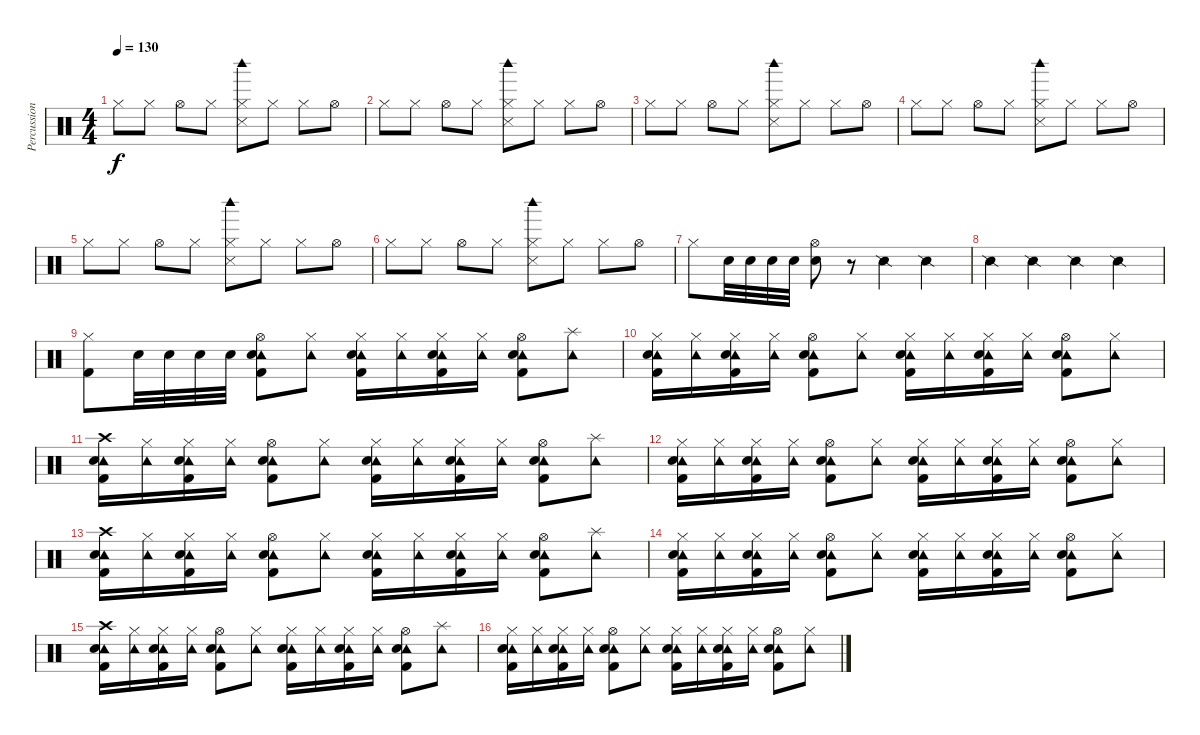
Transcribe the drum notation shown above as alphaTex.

\track ("Percussion" "Percussion") {instrument percussion}
\staff {score}
\articulation defaults
\ts (4 4)
\tempo 130
\clef neutral
\ks c "Hi-Hat (closed)".8{dy f} "Hi-Hat (closed)".8 "Hi-Hat (open)".8 "Hi-Hat (closed)".8
("Hi-Hat (closed)" "Snare (side stick) 3" "Woodblock high (hit)").8 "Hi-Hat (closed)".8 "Hi-Hat (closed)".8 "Hi-Hat (open)".8 |
"Hi-Hat (closed)".8 "Hi-Hat (closed)".8 "Hi-Hat (open)".8 "Hi-Hat (closed)".8 ("Hi-Hat (closed)" "Snare (side stick) 3" "Woodblock high (hit)").8 "Hi-Hat (closed)".8 "Hi-Hat (closed)".8 "Hi-Hat (open)".8 |
"Hi-Hat (closed)".8 "Hi-Hat (closed)".8 "Hi-Hat (open)".8 "Hi-Hat (closed)".8 ("Hi-Hat (closed)" "Snare (side stick) 3" "Woodblock high (hit)").8 "Hi-Hat (closed)".8 "Hi-Hat (closed)".8 "Hi-Hat (open)".8 |
"Hi-Hat (closed)".8 "Hi-Hat (closed)".8 "Hi-Hat (open)".8 "Hi-Hat (closed)".8 ("Hi-Hat (closed)" "Snare (side stick) 3" "Woodblock high (hit)").8 "Hi-Hat (closed)".8 "Hi-Hat (closed)".8 "Hi-Hat (open)".8 |
"Hi-Hat (closed)".8 "Hi-Hat (closed)".8 "Hi-Hat (open)".8 "Hi-Hat (closed)".8 ("Hi-Hat (closed)" "Snare (side stick) 3" "Woodblock high (hit)").8 "Hi-Hat (closed)".8 "Hi-Hat (closed)".8 "Hi-Hat (open)".8 |
"Hi-Hat (closed)".8 "Hi-Hat (closed)".8 "Hi-Hat (open)".8 "Hi-Hat (closed)".8 ("Hi-Hat (closed)" "Snare (side stick) 3" "Woodblock high (hit)").8 "Hi-Hat (closed)".8 "Hi-Hat (closed)".8 "Hi-Hat (open)".8 |
"Hi-Hat (closed)".8 "Snare (hit) 2".32 "Snare (hit) 2".32 "Snare (hit) 2".32 "Snare (hit) 2".32 ("Snare (hit) 2" "Hi-Hat (open)").8 r.8 "Snare (side stick) 2".4 "Snare (side stick) 2".4 |
"Snare (side stick) 2".4 "Snare (side stick) 2".4 "Snare (side stick) 2".4 "Snare (side stick) 2".4 |
("Hi-Hat (closed)" "Kick (hit) 2").8 "Snare (hit) 2".32 "Snare (hit) 2".32 "Snare (hit) 2".32 "Snare (hit) 2".32 ("Hi-Hat (open)" "Tambourine (hit)" "Electric Snare (hit)" "Kick (hit) 2").8 ("Hi-Hat (closed)" "Tambourine (hit)").8 ("Hi-Hat (closed)" "Tambourine (hit)" "Electric Snare (hit)" "Kick (hit) 2").16 ("Hi-Hat (closed)" "Tambourine (hit)").16 ("Hi-Hat (closed)" "Tambourine (hit)" "Electric Snare (hit)" "Kick (hit) 2").16 ("Hi-Hat (closed)" "Tambourine (hit)").16 ("Hi-Hat (open)" "Tambourine (hit)" "Electric Snare (hit)" "Kick (hit) 2").8 ("Splash (hit)" "Tambourine (hit)").8 |
("Hi-Hat (closed)" "Tambourine (hit)" "Electric Snare (hit)" "Kick (hit) 2").16 ("Hi-Hat (closed)" "Tambourine (hit)").16 ("Hi-Hat (closed)" "Tambourine (hit)" "Electric Snare (hit)" "Kick (hit) 2").16 ("Hi-Hat (closed)" "Tambourine (hit)").16 ("Hi-Hat (open)" "Tambourine (hit)" "Electric Snare (hit)" "Kick (hit) 2").8 ("Hi-Hat (closed)" "Tambourine (hit)").8 ("Hi-Hat (closed)" "Tambourine (hit)" "Electric Snare (hit)" "Kick (hit) 2").16 ("Hi-Hat (closed)" "Tambourine (hit)").16 ("Hi-Hat (closed)" "Tambourine (hit)" "Electric Snare (hit)" "Kick (hit) 2").16 ("Hi-Hat (closed)" "Tambourine (hit)").16 ("Hi-Hat (open)" "Tambourine (hit)" "Electric Snare (hit)" "Kick (hit) 2").8 ("Hi-Hat (closed)" "Tambourine (hit)").8 |
("Crash high (hit)" "Tambourine (hit)" "Electric Snare (hit)" "Kick (hit) 2").16{volume 16} ("Hi-Hat (closed)" "Tambourine (hit)").16 ("Hi-Hat (closed)" "Tambourine (hit)" "Electric Snare (hit)" "Kick (hit) 2").16 ("Hi-Hat (closed)" "Tambourine (hit)").16 ("Hi-Hat (open)" "Tambourine (hit)" "Electric Snare (hit)" "Kick (hit) 2").8 ("Hi-Hat (closed)" "Tambourine (hit)").8 ("Hi-Hat (closed)" "Tambourine (hit)" "Electric Snare (hit)" "Kick (hit) 2").16 ("Hi-Hat (closed)" "Tambourine (hit)").16 ("Hi-Hat (closed)" "Tambourine (hit)" "Electric Snare (hit)" "Kick (hit) 2").16 ("Hi-Hat (closed)" "Tambourine (hit)").16 ("Hi-Hat (open)" "Tambourine (hit)" "Electric Snare (hit)" "Kick (hit) 2").8 ("Splash (hit)" "Tambourine (hit)").8 |
("Hi-Hat (closed)" "Tambourine (hit)" "Electric Snare (hit)" "Kick (hit) 2").16 ("Hi-Hat (closed)" "Tambourine (hit)").16 ("Hi-Hat (closed)" "Tambourine (hit)" "Electric Snare (hit)" "Kick (hit) 2").16 ("Hi-Hat (closed)" "Tambourine (hit)").16 ("Hi-Hat (open)" "Tambourine (hit)" "Electric Snare (hit)" "Kick (hit) 2").8 ("Hi-Hat (closed)" "Tambourine (hit)").8 ("Hi-Hat (closed)" "Tambourine (hit)" "Electric Snare (hit)" "Kick (hit) 2").16 ("Hi-Hat (closed)" "Tambourine (hit)").16 ("Hi-Hat (closed)" "Tambourine (hit)" "Electric Snare (hit)" "Kick (hit) 2").16 ("Hi-Hat (closed)" "Tambourine (hit)").16 ("Hi-Hat (open)" "Tambourine (hit)" "Electric Snare (hit)" "Kick (hit) 2").8 ("Hi-Hat (closed)" "Tambourine (hit)").8 |
("Crash high (hit)" "Tambourine (hit)" "Electric Snare (hit)" "Kick (hit) 2").16{volume 16} ("Hi-Hat (closed)" "Tambourine (hit)").16 ("Hi-Hat (closed)" "Tambourine (hit)" "Electric Snare (hit)" "Kick (hit) 2").16 ("Hi-Hat (closed)" "Tambourine (hit)").16 ("Hi-Hat (open)" "Tambourine (hit)" "Electric Snare (hit)" "Kick (hit) 2").8 ("Hi-Hat (closed)" "Tambourine (hit)").8 ("Hi-Hat (closed)" "Tambourine (hit)" "Electric Snare (hit)" "Kick (hit) 2").16 ("Hi-Hat (closed)" "Tambourine (hit)").16 ("Hi-Hat (closed)" "Tambourine (hit)" "Electric Snare (hit)" "Kick (hit) 2").16 ("Hi-Hat (closed)" "Tambourine (hit)").16 ("Hi-Hat (open)" "Tambourine (hit)" "Electric Snare (hit)" "Kick (hit) 2").8 ("Splash (hit)" "Tambourine (hit)").8 |
("Hi-Hat (closed)" "Tambourine (hit)" "Electric Snare (hit)" "Kick (hit) 2").16 ("Hi-Hat (closed)" "Tambourine (hit)").16 ("Hi-Hat (closed)" "Tambourine (hit)" "Electric Snare (hit)" "Kick (hit) 2").16 ("Hi-Hat (closed)" "Tambourine (hit)").16 ("Hi-Hat (open)" "Tambourine (hit)" "Electric Snare (hit)" "Kick (hit) 2").8 ("Hi-Hat (closed)" "Tambourine (hit)").8 ("Hi-Hat (closed)" "Tambourine (hit)" "Electric Snare (hit)" "Kick (hit) 2").16 ("Hi-Hat (closed)" "Tambourine (hit)").16 ("Hi-Hat (closed)" "Tambourine (hit)" "Electric Snare (hit)" "Kick (hit) 2").16 ("Hi-Hat (closed)" "Tambourine (hit)").16 ("Hi-Hat (open)" "Tambourine (hit)" "Electric Snare (hit)" "Kick (hit) 2").8 ("Hi-Hat (closed)" "Tambourine (hit)").8 |
("Crash high (hit)" "Tambourine (hit)" "Electric Snare (hit)" "Kick (hit) 2").16{volume 16} ("Hi-Hat (closed)" "Tambourine (hit)").16 ("Hi-Hat (closed)" "Tambourine (hit)" "Electric Snare (hit)" "Kick (hit) 2").16 ("Hi-Hat (closed)" "Tambourine (hit)").16 ("Hi-Hat (open)" "Tambourine (hit)" "Electric Snare (hit)" "Kick (hit) 2").8 ("Hi-Hat (closed)" "Tambourine (hit)").8 ("Hi-Hat (closed)" "Tambourine (hit)" "Electric Snare (hit)" "Kick (hit) 2").16 ("Hi-Hat (closed)" "Tambourine (hit)").16 ("Hi-Hat (closed)" "Tambourine (hit)" "Electric Snare (hit)" "Kick (hit) 2").16 ("Hi-Hat (closed)" "Tambourine (hit)").16 ("Hi-Hat (open)" "Tambourine (hit)" "Electric Snare (hit)" "Kick (hit) 2").8 ("Splash (hit)" "Tambourine (hit)").8 |
("Hi-Hat (closed)" "Tambourine (hit)" "Electric Snare (hit)" "Kick (hit) 2").16 ("Hi-Hat (closed)" "Tambourine (hit)").16 ("Hi-Hat (closed)" "Tambourine (hit)" "Electric Snare (hit)" "Kick (hit) 2").16 ("Hi-Hat (closed)" "Tambourine (hit)").16 ("Hi-Hat (open)" "Tambourine (hit)" "Electric Snare (hit)" "Kick (hit) 2").8 ("Hi-Hat (closed)" "Tambourine (hit)").8 ("Hi-Hat (closed)" "Tambourine (hit)" "Electric Snare (hit)" "Kick (hit) 2").16 ("Hi-Hat (closed)" "Tambourine (hit)").16 ("Hi-Hat (closed)" "Tambourine (hit)" "Electric Snare (hit)" "Kick (hit) 2").16 ("Hi-Hat (closed)" "Tambourine (hit)").16 ("Hi-Hat (open)" "Tambourine (hit)" "Electric Snare (hit)" "Kick (hit) 2").8 ("Hi-Hat (closed)" "Tambourine (hit)").8
